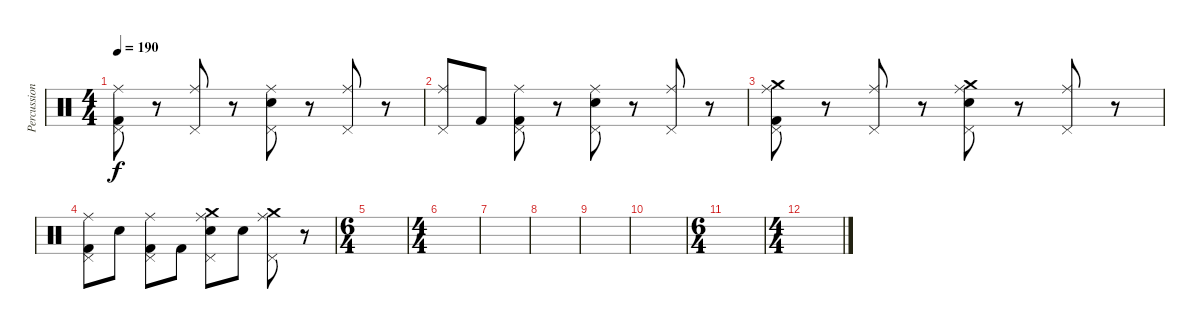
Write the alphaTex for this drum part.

\track ("Percussion" "Percussion") {instrument percussion}
\staff {score}
\articulation defaults
\ts (4 4)
\tempo 190
\clef neutral
\ks c
("Ride (middle)" "Pedal Hi-Hat (hit)" "Kick (hit) 2").8{dy f} r.8 ("Ride (middle)" "Pedal Hi-Hat (hit)").8 r.8 ("Ride (middle)" "Pedal Hi-Hat (hit)" "Snare (hit) 2").8 r.8 ("Ride (middle)" "Pedal Hi-Hat (hit)").8 r.8 |
("Ride (middle)" "Pedal Hi-Hat (hit)").8 "Kick (hit) 2".8 ("Ride (middle)" "Pedal Hi-Hat (hit)" "Kick (hit) 2").8 r.8 ("Ride (middle)" "Pedal Hi-Hat (hit)" "Snare (hit) 2").8 r.8 ("Ride (middle)" "Pedal Hi-Hat (hit)").8 r.8 |
("Crash medium (hit)" "Ride (middle)" "Pedal Hi-Hat (hit)" "Kick (hit) 2").8 r.8 ("Ride (middle)" "Pedal Hi-Hat (hit)").8 r.8 ("Crash medium (hit)" "Ride (middle)" "Pedal Hi-Hat (hit)" "Snare (hit) 2").8 r.8 ("Ride (middle)" "Pedal Hi-Hat (hit)").8 r.8 |
("Ride (middle)" "Pedal Hi-Hat (hit)" "Kick (hit) 2").8 "Snare (hit) 2".8 ("Ride (middle)" "Pedal Hi-Hat (hit)" "Kick (hit) 2").8 "Kick (hit) 2".8 ("Crash medium (hit)" "Ride (middle)" "Pedal Hi-Hat (hit)" "Snare (hit) 2").8 "Snare (hit) 2".8 ("Crash medium (hit)" "Ride (middle)" "Pedal Hi-Hat (hit)").8 r.8 |
\ts (6 4)
|
\ts (4 4)
|
|
|
|
|
\ts (6 4)
|
\ts (4 4)
